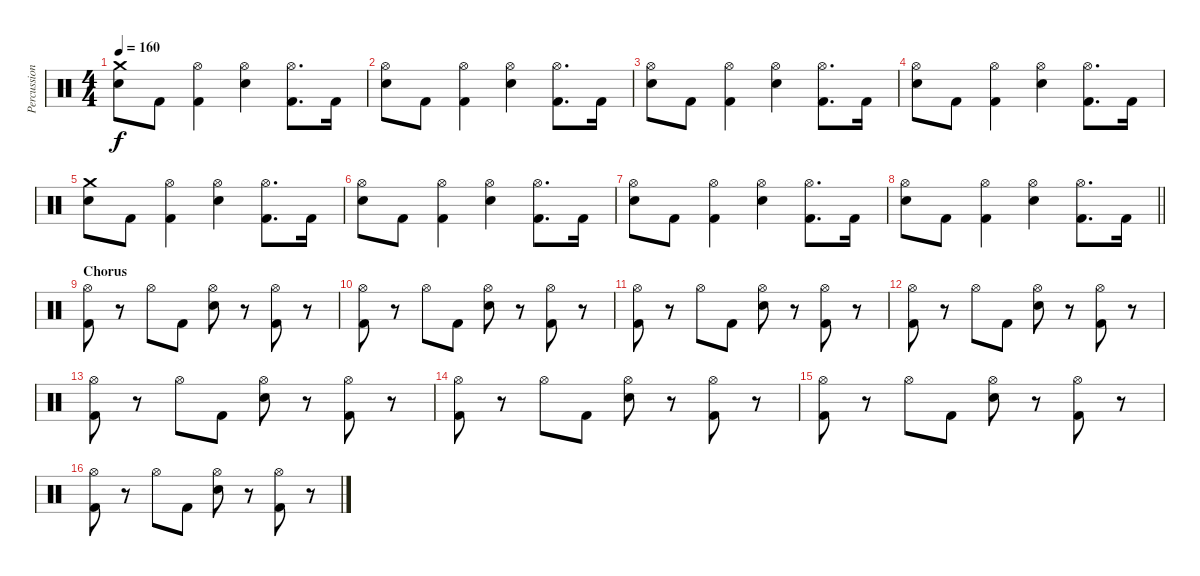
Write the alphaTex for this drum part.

\track ("Percussion" "Percussion") {instrument percussion}
\staff {score}
\articulation defaults
\ts (4 4)
\tempo 160
\clef neutral
\ks c
("Electric Snare (hit)" "Crash medium (hit)").8{dy f} "Kick (hit) 2".8 ("Kick (hit) 2" "Hi-Hat (open)").4 ("Electric Snare (hit)" "Hi-Hat (open)").4 ("Kick (hit) 2" "Hi-Hat (open)").8{d} "Kick (hit) 2".16 |
("Electric Snare (hit)" "Hi-Hat (open)").8 "Kick (hit) 2".8 ("Kick (hit) 2" "Hi-Hat (open)").4 ("Electric Snare (hit)" "Hi-Hat (open)").4 ("Kick (hit) 2" "Hi-Hat (open)").8{d} "Kick (hit) 2".16 |
("Electric Snare (hit)" "Hi-Hat (open)").8 "Kick (hit) 2".8 ("Kick (hit) 2" "Hi-Hat (open)").4 ("Electric Snare (hit)" "Hi-Hat (open)").4 ("Kick (hit) 2" "Hi-Hat (open)").8{d} "Kick (hit) 2".16 |
("Electric Snare (hit)" "Hi-Hat (open)").8 "Kick (hit) 2".8 ("Kick (hit) 2" "Hi-Hat (open)").4 ("Electric Snare (hit)" "Hi-Hat (open)").4 ("Kick (hit) 2" "Hi-Hat (open)").8{d} "Kick (hit) 2".16 |
("Electric Snare (hit)" "Crash medium (hit)").8 "Kick (hit) 2".8 ("Kick (hit) 2" "Hi-Hat (open)").4 ("Electric Snare (hit)" "Hi-Hat (open)").4 ("Kick (hit) 2" "Hi-Hat (open)").8{d} "Kick (hit) 2".16 |
("Electric Snare (hit)" "Hi-Hat (open)").8 "Kick (hit) 2".8 ("Kick (hit) 2" "Hi-Hat (open)").4 ("Electric Snare (hit)" "Hi-Hat (open)").4 ("Kick (hit) 2" "Hi-Hat (open)").8{d} "Kick (hit) 2".16 |
("Electric Snare (hit)" "Hi-Hat (open)").8 "Kick (hit) 2".8 ("Kick (hit) 2" "Hi-Hat (open)").4 ("Electric Snare (hit)" "Hi-Hat (open)").4 ("Kick (hit) 2" "Hi-Hat (open)").8{d} "Kick (hit) 2".16 |
\barLineRight lightlight
("Electric Snare (hit)" "Hi-Hat (open)").8 "Kick (hit) 2".8 ("Kick (hit) 2" "Hi-Hat (open)").4 ("Electric Snare (hit)" "Hi-Hat (open)").4 ("Kick (hit) 2" "Hi-Hat (open)").8{d} "Kick (hit) 2".16 |
\section ("" "Chorus")
("Kick (hit) 2" "Hi-Hat (open)").8 r.8 "Hi-Hat (open)".8 "Kick (hit) 2".8 ("Electric Snare (hit)" "Hi-Hat (open)").8 r.8 ("Kick (hit) 2" "Hi-Hat (open)").8 r.8 |
("Kick (hit) 2" "Hi-Hat (open)").8 r.8 "Hi-Hat (open)".8 "Kick (hit) 2".8 ("Electric Snare (hit)" "Hi-Hat (open)").8 r.8 ("Kick (hit) 2" "Hi-Hat (open)").8 r.8 |
("Kick (hit) 2" "Hi-Hat (open)").8 r.8 "Hi-Hat (open)".8 "Kick (hit) 2".8 ("Electric Snare (hit)" "Hi-Hat (open)").8 r.8 ("Kick (hit) 2" "Hi-Hat (open)").8 r.8 |
("Kick (hit) 2" "Hi-Hat (open)").8 r.8 "Hi-Hat (open)".8 "Kick (hit) 2".8 ("Electric Snare (hit)" "Hi-Hat (open)").8 r.8 ("Kick (hit) 2" "Hi-Hat (open)").8 r.8 |
("Kick (hit) 2" "Hi-Hat (open)").8 r.8 "Hi-Hat (open)".8 "Kick (hit) 2".8 ("Electric Snare (hit)" "Hi-Hat (open)").8 r.8 ("Kick (hit) 2" "Hi-Hat (open)").8 r.8 |
("Kick (hit) 2" "Hi-Hat (open)").8 r.8 "Hi-Hat (open)".8 "Kick (hit) 2".8 ("Electric Snare (hit)" "Hi-Hat (open)").8 r.8 ("Kick (hit) 2" "Hi-Hat (open)").8 r.8 |
("Kick (hit) 2" "Hi-Hat (open)").8 r.8 "Hi-Hat (open)".8 "Kick (hit) 2".8 ("Electric Snare (hit)" "Hi-Hat (open)").8 r.8 ("Kick (hit) 2" "Hi-Hat (open)").8 r.8 |
("Kick (hit) 2" "Hi-Hat (open)").8 r.8 "Hi-Hat (open)".8 "Kick (hit) 2".8 ("Electric Snare (hit)" "Hi-Hat (open)").8 r.8 ("Kick (hit) 2" "Hi-Hat (open)").8 r.8
